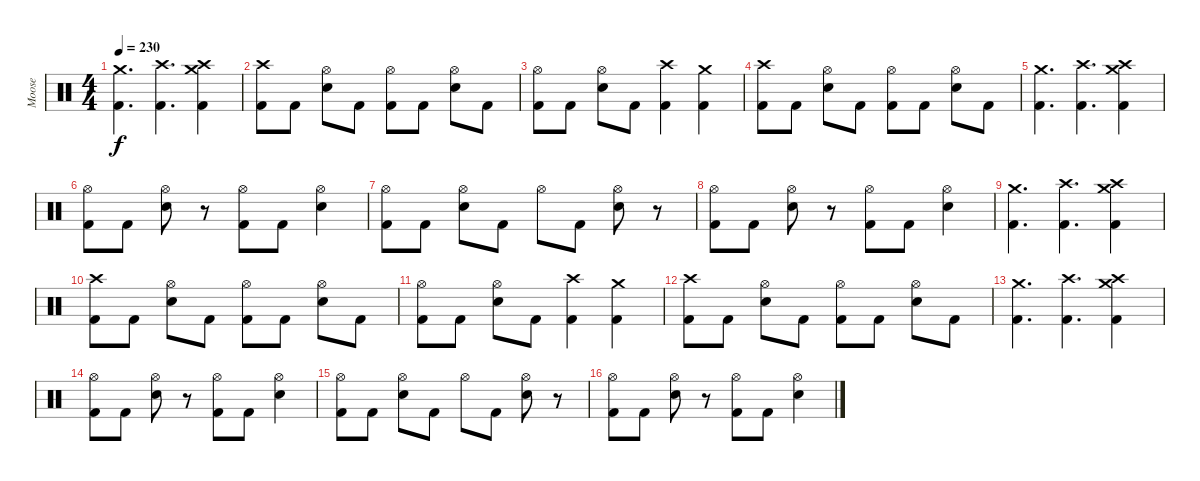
\track ("Moose" "Moose") {instrument percussion}
\staff {score}
\articulation defaults
\ts (4 4)
\section ("" "")
\tempo 230
\clef neutral
\ks c
("Crash medium (hit)" "Kick (hit) 2").4{d dy f} ("Crash high (hit)" "Kick (hit) 2").4{d} ("Crash high (hit)" "Crash medium (hit)" "Kick (hit) 2").4 |
("Crash high (hit)" "Kick (hit) 2").8 "Kick (hit) 2".8 ("Hi-Hat (open)" "Snare (hit) 2").8 "Kick (hit) 2".8 ("Hi-Hat (open)" "Kick (hit) 2").8 "Kick (hit) 2".8 ("Hi-Hat (open)" "Snare (hit) 2").8 "Kick (hit) 2".8 |
("Hi-Hat (open)" "Kick (hit) 2").8 "Kick (hit) 2".8 ("Hi-Hat (open)" "Snare (hit) 2").8 "Kick (hit) 2".8 ("Crash high (hit)" "Kick (hit) 2").4 ("Crash medium (hit)" "Kick (hit) 2").4 |
("Crash high (hit)" "Kick (hit) 2").8 "Kick (hit) 2".8 ("Hi-Hat (open)" "Snare (hit) 2").8 "Kick (hit) 2".8 ("Hi-Hat (open)" "Kick (hit) 2").8 "Kick (hit) 2".8 ("Hi-Hat (open)" "Snare (hit) 2").8 "Kick (hit) 2".8 |
("Crash medium (hit)" "Kick (hit) 2").4{d} ("Crash high (hit)" "Kick (hit) 2").4{d} ("Crash high (hit)" "Crash medium (hit)" "Kick (hit) 2").4 |
("Hi-Hat (open)" "Kick (hit) 2").8 "Kick (hit) 2".8 ("Hi-Hat (open)" "Snare (hit) 2").8 r.8 ("Hi-Hat (open)" "Kick (hit) 2").8 "Kick (hit) 2".8 ("Hi-Hat (open)" "Snare (hit) 2").4 |
("Hi-Hat (open)" "Kick (hit) 2").8 "Kick (hit) 2".8 ("Hi-Hat (open)" "Snare (hit) 2").8 "Kick (hit) 2".8 "Hi-Hat (open)".8 "Kick (hit) 2".8 ("Hi-Hat (open)" "Snare (hit) 2").8 r.8 |
("Hi-Hat (open)" "Kick (hit) 2").8 "Kick (hit) 2".8 ("Hi-Hat (open)" "Snare (hit) 2").8 r.8 ("Hi-Hat (open)" "Kick (hit) 2").8 "Kick (hit) 2".8 ("Hi-Hat (open)" "Snare (hit) 2").4 |
("Crash medium (hit)" "Kick (hit) 2").4{d} ("Crash high (hit)" "Kick (hit) 2").4{d} ("Crash high (hit)" "Crash medium (hit)" "Kick (hit) 2").4 |
("Crash high (hit)" "Kick (hit) 2").8 "Kick (hit) 2".8 ("Hi-Hat (open)" "Snare (hit) 2").8 "Kick (hit) 2".8 ("Hi-Hat (open)" "Kick (hit) 2").8 "Kick (hit) 2".8 ("Hi-Hat (open)" "Snare (hit) 2").8 "Kick (hit) 2".8 |
("Hi-Hat (open)" "Kick (hit) 2").8 "Kick (hit) 2".8 ("Hi-Hat (open)" "Snare (hit) 2").8 "Kick (hit) 2".8 ("Crash high (hit)" "Kick (hit) 2").4 ("Crash medium (hit)" "Kick (hit) 2").4 |
("Crash high (hit)" "Kick (hit) 2").8 "Kick (hit) 2".8 ("Hi-Hat (open)" "Snare (hit) 2").8 "Kick (hit) 2".8 ("Hi-Hat (open)" "Kick (hit) 2").8 "Kick (hit) 2".8 ("Hi-Hat (open)" "Snare (hit) 2").8 "Kick (hit) 2".8 |
("Crash medium (hit)" "Kick (hit) 2").4{d} ("Crash high (hit)" "Kick (hit) 2").4{d} ("Crash high (hit)" "Crash medium (hit)" "Kick (hit) 2").4 |
("Hi-Hat (open)" "Kick (hit) 2").8 "Kick (hit) 2".8 ("Hi-Hat (open)" "Snare (hit) 2").8 r.8 ("Hi-Hat (open)" "Kick (hit) 2").8 "Kick (hit) 2".8 ("Hi-Hat (open)" "Snare (hit) 2").4 |
("Hi-Hat (open)" "Kick (hit) 2").8 "Kick (hit) 2".8 ("Hi-Hat (open)" "Snare (hit) 2").8 "Kick (hit) 2".8 "Hi-Hat (open)".8 "Kick (hit) 2".8 ("Hi-Hat (open)" "Snare (hit) 2").8 r.8 |
("Hi-Hat (open)" "Kick (hit) 2").8 "Kick (hit) 2".8 ("Hi-Hat (open)" "Snare (hit) 2").8 r.8 ("Hi-Hat (open)" "Kick (hit) 2").8 "Kick (hit) 2".8 ("Hi-Hat (open)" "Snare (hit) 2").4
